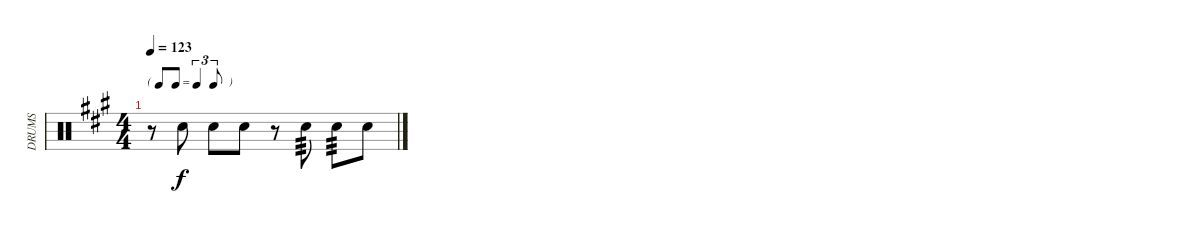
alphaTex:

\track ("DRUMS" "DRUMS") {solo instrument percussion}
\staff {score}
\articulation defaults
\ts (4 4)
\tf triplet8th
\tempo 123
\clef neutral
\ks a
r.8{dy f} "Snare (hit) 2".8 "Snare (hit) 2".8 "Snare (hit) 2".8 r.8 "Snare (hit) 2".8{tp 3} "Snare (hit) 2".8{tp 3} "Snare (hit) 2".8
